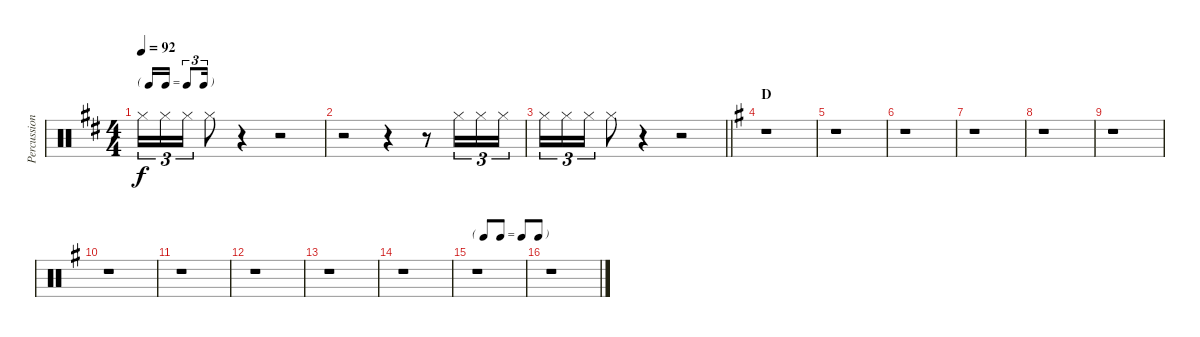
\track ("Percussion" "Percussion") {instrument percussion}
\staff {score}
\articulation defaults
\ts (4 4)
\tf triplet16th
\tempo 92
\clef neutral
\ks d "Hi-Hat (closed)".16{tu (3 2) dy f} "Hi-Hat (closed)".16{tu (3 2)} "Hi-Hat (closed)".16{tu (3 2)} "Hi-Hat (closed)".8
r.4 r.2 |
r.2 r.4 r.8 "Hi-Hat (closed)".16{tu (3 2)} "Hi-Hat (closed)".16{tu (3 2)} "Hi-Hat (closed)".16{tu (3 2)} |
\barLineRight lightlight "Hi-Hat (closed)".16{tu (3 2)} "Hi-Hat (closed)".16{tu (3 2)} "Hi-Hat (closed)".16{tu (3 2)} "Hi-Hat (closed)".8
r.4 r.2 |
\section ("" "D")
\ks g
r.1 |
r.1 |
r.1 |
r.1 |
r.1 |
r.1 |
r.1 |
r.1 |
r.1 |
r.1 |
r.1 |
\tf none
r.1 |
r.1
